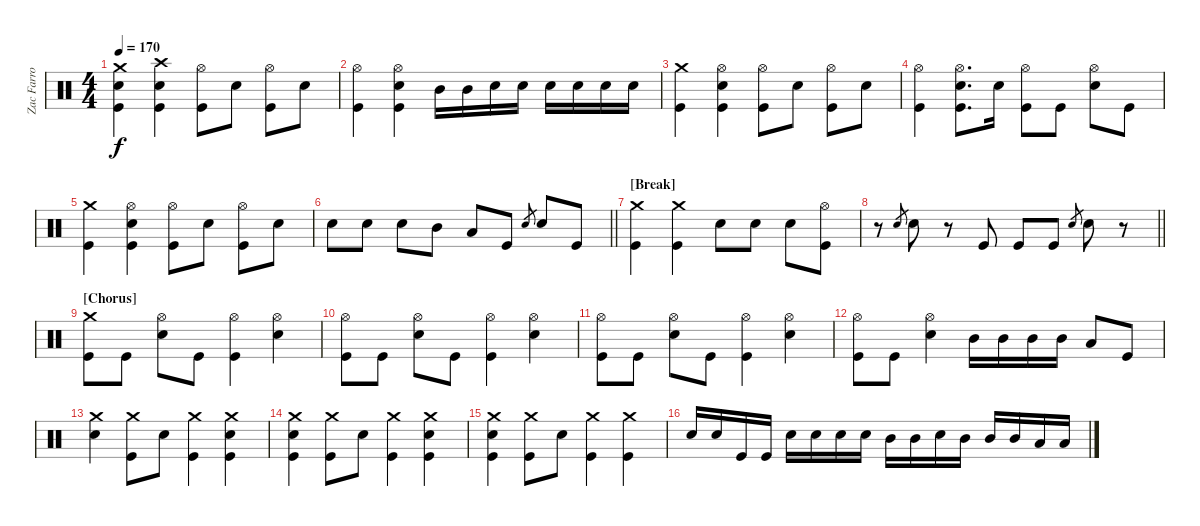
\track ("Zac Farro" "Zac Farro") {instrument percussion}
\staff {score}
\articulation defaults
\ts (4 4)
\tempo 170
\clef neutral
\ks c
("Crash medium (hit)" "Electric Snare (hit)" "Kick (hit)").4{dy f} ("Crash high (hit)" "Electric Snare (hit)" "Kick (hit)").4 ("Hi-Hat (open)" "Kick (hit)").8 "Electric Snare (hit)".8 ("Hi-Hat (open)" "Kick (hit)").8 "Electric Snare (hit)".8 |
("Hi-Hat (open)" "Kick (hit)").4 ("Hi-Hat (open)" "Electric Snare (hit)" "Kick (hit)").4 "Mid Tom (hit)".16 "Mid Tom (hit)".16 "Electric Snare (hit)".16 "Electric Snare (hit)".16 "Electric Snare (hit)".16 "Electric Snare (hit)".16 "Electric Snare (hit)".16 "Electric Snare (hit)".16 |
("Crash medium (hit)" "Kick (hit)").4 ("Hi-Hat (open)" "Electric Snare (hit)" "Kick (hit)").4 ("Hi-Hat (open)" "Kick (hit)").8 "Electric Snare (hit)".8 ("Hi-Hat (open)" "Kick (hit)").8 "Electric Snare (hit)".8 |
("Hi-Hat (open)" "Kick (hit)").4 ("Hi-Hat (open)" "Electric Snare (hit)" "Kick (hit)").8{d} "Electric Snare (hit)".16 ("Hi-Hat (open)" "Kick (hit)").8 "Kick (hit)".8 ("Hi-Hat (open)" "Electric Snare (hit)").8 "Kick (hit)".8 |
("Crash medium (hit)" "Kick (hit)").4 ("Hi-Hat (open)" "Electric Snare (hit)" "Kick (hit)").4 ("Hi-Hat (open)" "Kick (hit)").8 "Electric Snare (hit)".8 ("Hi-Hat (open)" "Kick (hit)").8 "Electric Snare (hit)".8 |
\barLineRight lightlight "Electric Snare (hit)".8 "Electric Snare (hit)".8 "Electric Snare (hit)".8 "Mid Tom (hit)".8 "Low Tom (hit)".8 "Kick (hit)".8 "Electric Snare (hit)".8{gr} "Electric Snare (hit)".8 "Kick (hit)".8
|
\section ("" "[Break]")
("Crash medium (hit)" "Kick (hit)").4 ("Crash medium (hit)" "Kick (hit)").4 "Electric Snare (hit)".8 "Electric Snare (hit)".8 "Electric Snare (hit)".8 ("Hi-Hat (open)" "Kick (hit)").8 |
\barLineRight lightlight
r.8 "Electric Snare (hit)".8{gr} "Electric Snare (hit)".8 r.8 "Kick (hit)".8 "Kick (hit)".8 "Kick (hit)".8 "Electric Snare (hit)".8{gr} "Electric Snare (hit)".8 r.8 |
\section ("" "[Chorus]")
("Crash medium (hit)" "Kick (hit)").8 "Kick (hit)".8 ("Hi-Hat (open)" "Electric Snare (hit)").8 "Kick (hit)".8 ("Hi-Hat (open)" "Kick (hit)").4 ("Hi-Hat (open)" "Electric Snare (hit)").4 |
("Hi-Hat (open)" "Kick (hit)").8 "Kick (hit)".8 ("Hi-Hat (open)" "Electric Snare (hit)").8 "Kick (hit)".8 ("Hi-Hat (open)" "Kick (hit)").4 ("Hi-Hat (open)" "Electric Snare (hit)").4 |
("Hi-Hat (open)" "Kick (hit)").8 "Kick (hit)".8 ("Hi-Hat (open)" "Electric Snare (hit)").8 "Kick (hit)".8 ("Hi-Hat (open)" "Kick (hit)").4 ("Hi-Hat (open)" "Electric Snare (hit)").4 |
("Hi-Hat (open)" "Kick (hit)").8 "Kick (hit)".8 ("Hi-Hat (open)" "Electric Snare (hit)").4 "Mid Tom (hit)".16 "Mid Tom (hit)".16 "Mid Tom (hit)".16 "Mid Tom (hit)".16 "Low Tom (hit)".8 "Kick (hit)".8 |
("Crash medium (hit)" "Electric Snare (hit)").4 ("Crash medium (hit)" "Kick (hit)").8 "Electric Snare (hit)".8 ("Crash medium (hit)" "Kick (hit)").4 ("Crash medium (hit)" "Electric Snare (hit)" "Kick (hit)").4 |
("Crash medium (hit)" "Electric Snare (hit)" "Kick (hit)").4 ("Crash medium (hit)" "Kick (hit)").8 "Electric Snare (hit)".8 ("Crash medium (hit)" "Kick (hit)").4 ("Crash medium (hit)" "Electric Snare (hit)" "Kick (hit)").4 |
("Crash medium (hit)" "Electric Snare (hit)" "Kick (hit)").4 ("Crash medium (hit)" "Kick (hit)").8 "Electric Snare (hit)".8 ("Crash medium (hit)" "Kick (hit)").4 ("Crash medium (hit)" "Kick (hit)").4 |
"Electric Snare (hit)".16 "Electric Snare (hit)".16 "Kick (hit)".16 "Kick (hit)".16 "Electric Snare (hit)".16 "Electric Snare (hit)".16 "Electric Snare (hit)".16 "Electric Snare (hit)".16 "Mid Tom (hit)".16 "Mid Tom (hit)".16 "Electric Snare (hit)".16 "Mid Tom (hit)".16 "Mid Tom (hit)".16 "Mid Tom (hit)".16 "Low Tom (hit)".16 "Low Tom (hit)".16
